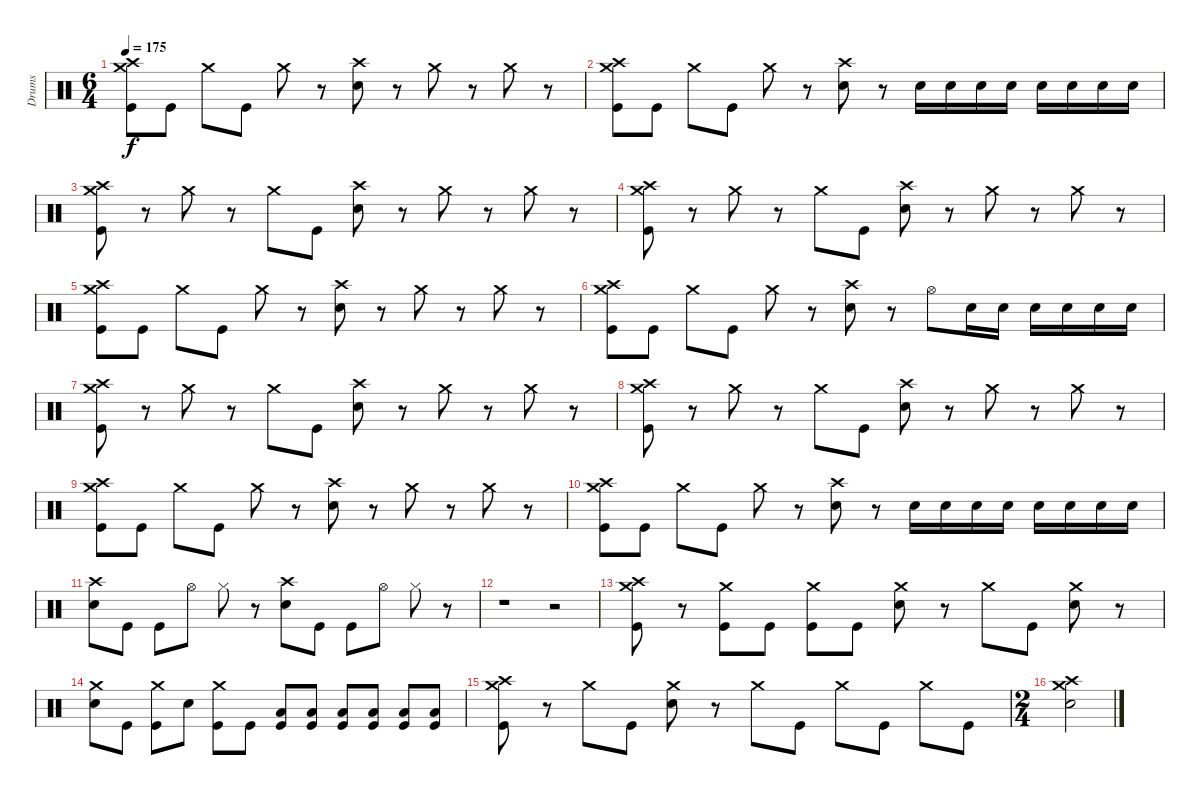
\track ("Drums" "Drums") {instrument percussion}
\staff {score}
\articulation defaults
\ts (6 4)
\tempo 175
\clef neutral
\ks c
("Crash high (hit)" "Crash medium (hit)" "Kick (hit)").8{dy f} "Kick (hit)".8 "Crash medium (hit)".8 "Kick (hit)".8 "Crash medium (hit)".8 r.8 ("Crash high (hit)" "Snare (hit) 2").8 r.8 "Crash medium (hit)".8 r.8 "Crash medium (hit)".8 r.8 |
("Crash high (hit)" "Crash medium (hit)" "Kick (hit)").8 "Kick (hit)".8 "Crash medium (hit)".8 "Kick (hit)".8 "Crash medium (hit)".8 r.8 ("Crash high (hit)" "Snare (hit) 2").8 r.8 "Snare (hit) 2".16 "Snare (hit) 2".16 "Snare (hit) 2".16 "Snare (hit) 2".16 "Snare (hit) 2".16 "Snare (hit) 2".16 "Snare (hit) 2".16 "Snare (hit) 2".16 |
("Crash high (hit)" "Crash medium (hit)" "Kick (hit)").8 r.8 "Crash medium (hit)".8 r.8 "Crash medium (hit)".8 "Kick (hit)".8 ("Crash high (hit)" "Snare (hit) 2").8 r.8 "Crash medium (hit)".8 r.8 "Crash medium (hit)".8 r.8 |
("Crash high (hit)" "Crash medium (hit)" "Kick (hit)").8 r.8 "Crash medium (hit)".8 r.8 "Crash medium (hit)".8 "Kick (hit)".8 ("Crash high (hit)" "Snare (hit) 2").8 r.8 "Crash medium (hit)".8 r.8 "Crash medium (hit)".8 r.8 |
("Crash high (hit)" "Crash medium (hit)" "Kick (hit)").8 "Kick (hit)".8 "Crash medium (hit)".8 "Kick (hit)".8 "Crash medium (hit)".8 r.8 ("Crash high (hit)" "Snare (hit) 2").8 r.8 "Crash medium (hit)".8 r.8 "Crash medium (hit)".8 r.8 |
("Crash high (hit)" "Crash medium (hit)" "Kick (hit)").8 "Kick (hit)".8 "Crash medium (hit)".8 "Kick (hit)".8 "Crash medium (hit)".8 r.8 ("Crash high (hit)" "Snare (hit) 2").8 r.8 "Hi-Hat (open)".8 "Snare (hit) 2".16 "Snare (hit) 2".16 "Snare (hit) 2".16 "Snare (hit) 2".16 "Snare (hit) 2".16 "Snare (hit) 2".16 |
("Crash high (hit)" "Crash medium (hit)" "Kick (hit)").8 r.8 "Crash medium (hit)".8 r.8 "Crash medium (hit)".8 "Kick (hit)".8 ("Crash high (hit)" "Snare (hit) 2").8 r.8 "Crash medium (hit)".8 r.8 "Crash medium (hit)".8 r.8 |
("Crash high (hit)" "Crash medium (hit)" "Kick (hit)").8 r.8 "Crash medium (hit)".8 r.8 "Crash medium (hit)".8 "Kick (hit)".8 ("Crash high (hit)" "Snare (hit) 2").8 r.8 "Crash medium (hit)".8 r.8 "Crash medium (hit)".8 r.8 |
("Crash high (hit)" "Crash medium (hit)" "Kick (hit)").8 "Kick (hit)".8 "Crash medium (hit)".8 "Kick (hit)".8 "Crash medium (hit)".8 r.8 ("Crash high (hit)" "Snare (hit) 2").8 r.8 "Crash medium (hit)".8 r.8 "Crash medium (hit)".8 r.8 |
("Crash high (hit)" "Crash medium (hit)" "Kick (hit)").8 "Kick (hit)".8 "Crash medium (hit)".8 "Kick (hit)".8 "Crash medium (hit)".8 r.8 ("Crash high (hit)" "Snare (hit) 2").8 r.8 "Snare (hit) 2".16 "Snare (hit) 2".16 "Snare (hit) 2".16 "Snare (hit) 2".16 "Snare (hit) 2".16 "Snare (hit) 2".16 "Snare (hit) 2".16 "Snare (hit) 2".16 |
("Crash high (hit)" "Snare (hit) 2").8 "Kick (hit)".8 "Kick (hit)".8 "Hi-Hat (open)".8 "Hi-Hat (closed)".8 r.8 ("Crash high (hit)" "Snare (hit) 2").8 "Kick (hit)".8 "Kick (hit)".8 "Hi-Hat (open)".8 "Hi-Hat (closed)".8 r.8 |
r.1 r.2 |
("Crash high (hit)" "Crash medium (hit)" "Kick (hit)").8 r.8 ("Crash medium (hit)" "Kick (hit)").8 "Kick (hit)".8 ("Crash medium (hit)" "Kick (hit)").8 "Kick (hit)".8 ("Crash medium (hit)" "Snare (hit) 2").8 r.8 "Crash medium (hit)".8 "Kick (hit)".8 ("Crash medium (hit)" "Snare (hit) 2").8 r.8 |
("Crash medium (hit)" "Snare (hit) 2").8 "Kick (hit)".8 ("Crash medium (hit)" "Kick (hit)").8 "Snare (hit) 2".8 ("Crash medium (hit)" "Kick (hit)").8 "Kick (hit)".8 ("Low Floor Tom (hit)" "Kick (hit)").8 ("Low Floor Tom (hit)" "Kick (hit)").8 ("Low Floor Tom (hit)" "Kick (hit)").8 ("Low Floor Tom (hit)" "Kick (hit)").8 ("Low Floor Tom (hit)" "Kick (hit)").8 ("Low Floor Tom (hit)" "Kick (hit)").8 |
("Crash high (hit)" "Crash medium (hit)" "Kick (hit)").8 r.8 "Crash medium (hit)".8 "Kick (hit)".8 ("Crash medium (hit)" "Snare (hit) 2").8 r.8 "Crash medium (hit)".8 "Kick (hit)".8 "Crash medium (hit)".8 "Kick (hit)".8 "Crash medium (hit)".8 "Kick (hit)".8 |
\ts (2 4)
("Crash high (hit)" "Crash medium (hit)" "Snare (hit) 2").2
